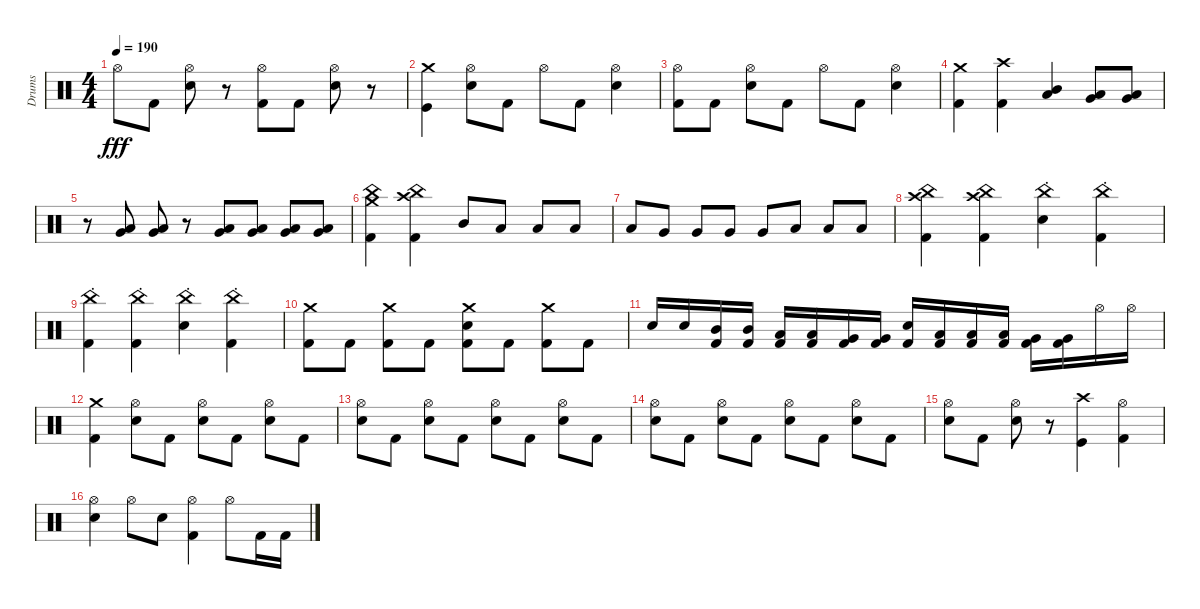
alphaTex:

\track ("Drums" "Drums") {instrument percussion}
\staff {score}
\articulation defaults
\ts (4 4)
\tempo 190
\clef neutral
\ks c "Hi-Hat (open)".8{dy fff} "Kick (hit) 2".8
("Electric Snare (hit)" "Hi-Hat (open)").8 r.8 ("Kick (hit) 2" "Hi-Hat (open)").8 "Kick (hit) 2".8 ("Hi-Hat (open)" "Electric Snare (hit)").8 r.8 |
("Crash medium (hit)" "Kick (hit)").4 ("Electric Snare (hit)" "Hi-Hat (open)").8 "Kick (hit) 2".8 "Hi-Hat (open)".8 "Kick (hit) 2".8 ("Hi-Hat (open)" "Electric Snare (hit)").4 |
("Hi-Hat (open)" "Kick (hit) 2").8 "Kick (hit) 2".8 ("Hi-Hat (open)" "Electric Snare (hit)").8 "Kick (hit) 2".8 "Hi-Hat (open)".8 "Kick (hit) 2".8 ("Hi-Hat (open)" "Electric Snare (hit)").4 |
("Kick (hit) 2" "Crash medium (hit)").4 ("Crash high (hit)" "Kick (hit) 2").4 ("Mid Tom (hit)" "Low Tom (hit)").4 ("Very Low Tom (hit)" "Low Tom (hit)").8 ("Very Low Tom (hit)" "Low Tom (hit)").8 |
r.8 ("Low Tom (hit)" "Very Low Tom (hit)").8 ("Low Tom (hit)" "Very Low Tom (hit)").8 r.8 ("Very Low Tom (hit)" "Low Floor Tom (hit)").8 ("Very Low Tom (hit)" "Low Floor Tom (hit)").8 ("Very Low Tom (hit)" "Low Floor Tom (hit)").8 ("Very Low Tom (hit)" "Low Floor Tom (hit)").8 |
("Crash medium (hit)" "Kick (hit) 2" "China (hit)").4 ("Crash high (hit)" "Kick (hit) 2" "China (hit)").4 "Mid Tom (hit)".8 "Low Tom (hit)".8 "Low Tom (hit)".8 "Low Tom (hit)".8 |
"Low Tom (hit)".8 "Very Low Tom (hit)".8 "Very Low Tom (hit)".8 "Very Low Tom (hit)".8 "Very Low Tom (hit)".8 "Low Floor Tom (hit)".8 "Low Floor Tom (hit)".8 "Low Floor Tom (hit)".8 |
("Crash high (hit)" "Kick (hit) 2" "China (hit)").4 ("Kick (hit) 2" "Crash high (hit)" "China (hit)").4 ("Electric Snare (hit)" "China (hit)"{st}).4 ("China (hit)"{st} "Kick (hit) 2").4 |
("China (hit)"{st} "Kick (hit) 2").4 ("China (hit)"{st} "Kick (hit) 2").4 ("China (hit)"{st} "Electric Snare (hit)").4 ("China (hit)"{st} "Kick (hit) 2").4 |
("Kick (hit) 2" "Crash medium (hit)").8 "Kick (hit) 2".8 ("Kick (hit) 2" "Crash medium (hit)").8 "Kick (hit) 2".8 ("Kick (hit) 2" "Crash medium (hit)" "Electric Snare (hit)").8 "Kick (hit) 2".8 ("Kick (hit) 2" "Crash medium (hit)").8 "Kick (hit) 2".8 |
"Electric Snare (hit)".16 "Electric Snare (hit)".16 ("Mid Tom (hit)" "Kick (hit) 2").16 ("Mid Tom (hit)" "Kick (hit) 2").16 ("Low Tom (hit)" "Kick (hit) 2").16 ("Low Tom (hit)" "Kick (hit) 2").16 ("Very Low Tom (hit)" "Kick (hit) 2").16 ("Very Low Tom (hit)" "Kick (hit) 2").16 ("Electric Snare (hit)" "Kick (hit) 2").16 ("Low Tom (hit)" "Kick (hit) 2").16 ("Low Tom (hit)" "Kick (hit) 2").16 ("Low Tom (hit)" "Kick (hit) 2").16 ("Very Low Tom (hit)" "Kick (hit) 2").16 ("Kick (hit) 2" "Very Low Tom (hit)").16 "Hi-Hat (open)".16 "Hi-Hat (open)".16 |
("Crash medium (hit)" "Kick (hit) 2").4 ("Hi-Hat (open)" "Electric Snare (hit)").8 "Kick (hit) 2".8 ("Hi-Hat (open)" "Electric Snare (hit)").8 "Kick (hit) 2".8 ("Hi-Hat (open)" "Electric Snare (hit)").8 "Kick (hit) 2".8 |
("Hi-Hat (open)" "Electric Snare (hit)").8 "Kick (hit) 2".8 ("Hi-Hat (open)" "Electric Snare (hit)").8 "Kick (hit) 2".8 ("Hi-Hat (open)" "Electric Snare (hit)").8 "Kick (hit) 2".8 ("Hi-Hat (open)" "Electric Snare (hit)").8 "Kick (hit) 2".8 |
("Hi-Hat (open)" "Electric Snare (hit)").8 "Kick (hit) 2".8 ("Hi-Hat (open)" "Electric Snare (hit)").8 "Kick (hit) 2".8 ("Hi-Hat (open)" "Electric Snare (hit)").8 "Kick (hit) 2".8 ("Hi-Hat (open)" "Electric Snare (hit)").8 "Kick (hit) 2".8 |
("Hi-Hat (open)" "Electric Snare (hit)").8 "Kick (hit) 2".8 ("Hi-Hat (open)" "Electric Snare (hit)").8 r.8 ("Crash high (hit)" "Kick (hit)").4 ("Kick (hit) 2" "Hi-Hat (open)").4 |
("Hi-Hat (open)" "Electric Snare (hit)").4 "Hi-Hat (open)".8 "Electric Snare (hit)".8 ("Hi-Hat (open)" "Kick (hit) 2").4 "Hi-Hat (open)".8 "Kick (hit) 2".16 "Kick (hit) 2".16
